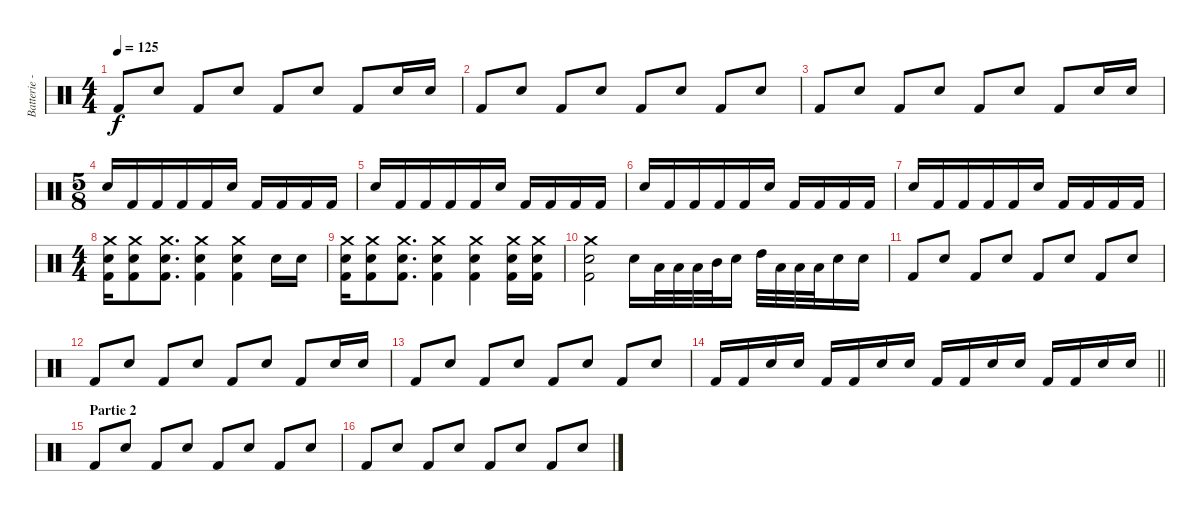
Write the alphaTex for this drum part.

\track ("Batterie - Shane Gaalaas" "Batterie -") {instrument percussion}
\staff {score}
\articulation defaults
\ts (4 4)
\tempo 125
\clef neutral
\ks c "Kick (hit) 2".8{dy f} "Electric Snare (hit)".8 "Kick (hit) 2".8 "Electric Snare (hit)".8 "Kick (hit) 2".8 "Electric Snare (hit)".8 "Kick (hit) 2".8 "Electric Snare (hit)".16 "Electric Snare (hit)".16
|
"Kick (hit) 2".8 "Electric Snare (hit)".8 "Kick (hit) 2".8 "Electric Snare (hit)".8 "Kick (hit) 2".8 "Electric Snare (hit)".8 "Kick (hit) 2".8 "Electric Snare (hit)".8 |
"Kick (hit) 2".8 "Electric Snare (hit)".8 "Kick (hit) 2".8 "Electric Snare (hit)".8 "Kick (hit) 2".8 "Electric Snare (hit)".8 "Kick (hit) 2".8 "Electric Snare (hit)".16 "Electric Snare (hit)".16 |
\ts (5 8)
"Electric Snare (hit)".16 "Kick (hit) 2".16 "Kick (hit) 2".16 "Kick (hit) 2".16 "Kick (hit) 2".16 "Electric Snare (hit)".16 "Kick (hit) 2".16 "Kick (hit) 2".16 "Kick (hit) 2".16 "Kick (hit) 2".16 |
"Electric Snare (hit)".16 "Kick (hit) 2".16 "Kick (hit) 2".16 "Kick (hit) 2".16 "Kick (hit) 2".16 "Electric Snare (hit)".16 "Kick (hit) 2".16 "Kick (hit) 2".16 "Kick (hit) 2".16 "Kick (hit) 2".16 |
"Electric Snare (hit)".16 "Kick (hit) 2".16 "Kick (hit) 2".16 "Kick (hit) 2".16 "Kick (hit) 2".16 "Electric Snare (hit)".16 "Kick (hit) 2".16 "Kick (hit) 2".16 "Kick (hit) 2".16 "Kick (hit) 2".16 |
"Electric Snare (hit)".16 "Kick (hit) 2".16 "Kick (hit) 2".16 "Kick (hit) 2".16 "Kick (hit) 2".16 "Electric Snare (hit)".16 "Kick (hit) 2".16 "Kick (hit) 2".16 "Kick (hit) 2".16 "Kick (hit) 2".16 |
\ts (4 4)
("Crash medium (hit)" "Electric Snare (hit)" "Kick (hit) 2").16 ("Crash medium (hit)" "Electric Snare (hit)" "Kick (hit) 2").8 ("Crash medium (hit)" "Electric Snare (hit)" "Kick (hit) 2").8{d} ("Crash medium (hit)" "Electric Snare (hit)" "Kick (hit) 2").4 ("Crash medium (hit)" "Electric Snare (hit)" "Kick (hit) 2").4 "Electric Snare (hit)".16 "Electric Snare (hit)".16 |
("Crash medium (hit)" "Electric Snare (hit)" "Kick (hit) 2").16 ("Crash medium (hit)" "Electric Snare (hit)" "Kick (hit) 2").8 ("Crash medium (hit)" "Electric Snare (hit)" "Kick (hit) 2").8{d} ("Crash medium (hit)" "Electric Snare (hit)" "Kick (hit) 2").4 ("Crash medium (hit)" "Electric Snare (hit)" "Kick (hit) 2").4 ("Crash medium (hit)" "Electric Snare (hit)" "Kick (hit) 2").16 ("Crash medium (hit)" "Electric Snare (hit)" "Kick (hit) 2").16 |
("Crash medium (hit)" "Electric Snare (hit)" "Kick (hit) 2").2 "Electric Snare (hit)".16 "Low Tom (hit)".32 "Low Tom (hit)".32 "Low Tom (hit)".32 "Mid Tom (hit)".32 "Electric Snare (hit)".16 "High Tom (hit)".32 "Low Tom (hit)".32 "Low Tom (hit)".32 "Low Tom (hit)".32 "Electric Snare (hit)".16 "Electric Snare (hit)".16 |
"Kick (hit) 2".8 "Electric Snare (hit)".8 "Kick (hit) 2".8 "Electric Snare (hit)".8 "Kick (hit) 2".8 "Electric Snare (hit)".8 "Kick (hit) 2".8 "Electric Snare (hit)".8 |
"Kick (hit) 2".8 "Electric Snare (hit)".8 "Kick (hit) 2".8 "Electric Snare (hit)".8 "Kick (hit) 2".8 "Electric Snare (hit)".8 "Kick (hit) 2".8 "Electric Snare (hit)".16 "Electric Snare (hit)".16 |
"Kick (hit) 2".8 "Electric Snare (hit)".8 "Kick (hit) 2".8 "Electric Snare (hit)".8 "Kick (hit) 2".8 "Electric Snare (hit)".8 "Kick (hit) 2".8 "Electric Snare (hit)".8 |
\barLineRight lightlight "Kick (hit) 2".16 "Kick (hit) 2".16 "Electric Snare (hit)".16 "Electric Snare (hit)".16 "Kick (hit) 2".16 "Kick (hit) 2".16 "Electric Snare (hit)".16 "Electric Snare (hit)".16 "Kick (hit) 2".16 "Kick (hit) 2".16 "Electric Snare (hit)".16 "Electric Snare (hit)".16 "Kick (hit) 2".16 "Kick (hit) 2".16 "Electric Snare (hit)".16 "Electric Snare (hit)".16
|
\section ("" "Partie 2")
"Kick (hit) 2".8 "Electric Snare (hit)".8 "Kick (hit) 2".8 "Electric Snare (hit)".8 "Kick (hit) 2".8 "Electric Snare (hit)".8 "Kick (hit) 2".8 "Electric Snare (hit)".8 |
"Kick (hit) 2".8 "Electric Snare (hit)".8 "Kick (hit) 2".8 "Electric Snare (hit)".8 "Kick (hit) 2".8 "Electric Snare (hit)".8 "Kick (hit) 2".8 "Electric Snare (hit)".8
